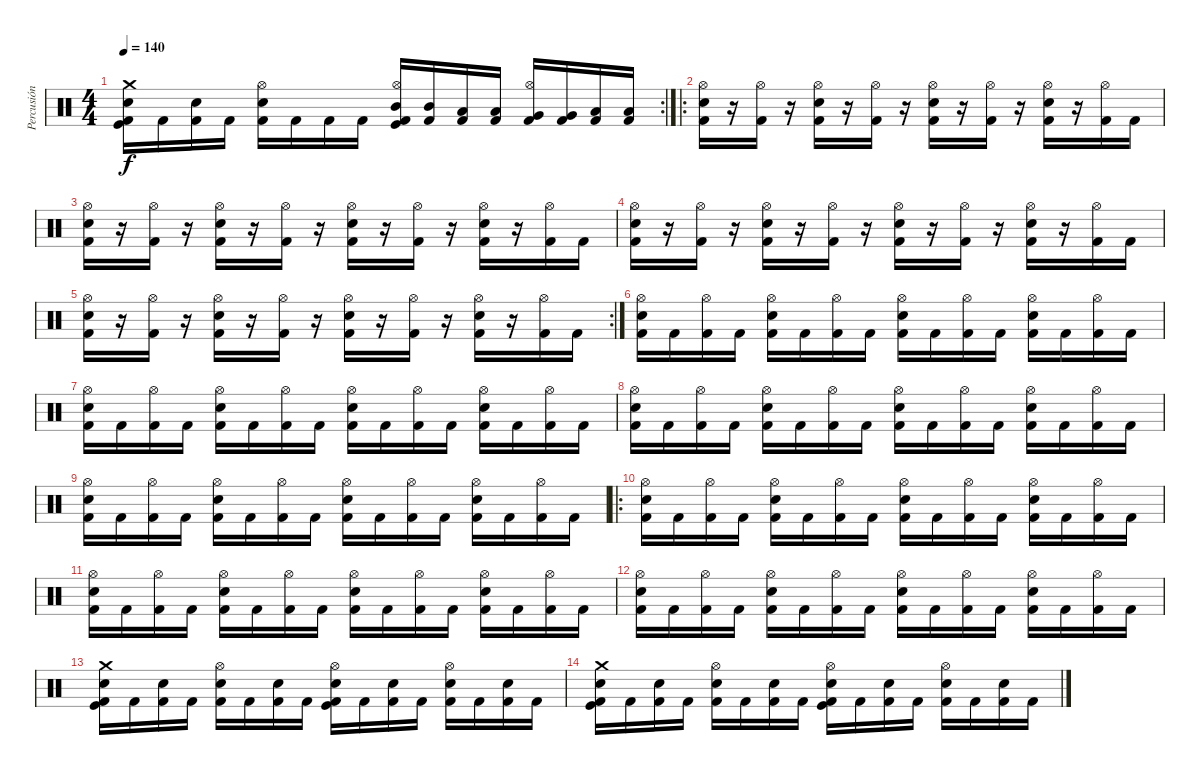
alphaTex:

\track ("Percusión" "Percusión") {instrument percussion}
\staff {score}
\articulation defaults
\rc 2
\ts (4 4)
\tempo 140
\clef neutral
\ks c
("Crash medium (hit)" "Electric Snare (hit)" "Kick (hit)" "Kick (hit) 2").16{dy f} "Kick (hit) 2".16 ("Electric Snare (hit)" "Kick (hit) 2").16 "Kick (hit) 2".16 ("Hi-Hat (open)" "Electric Snare (hit)" "Kick (hit) 2").16 "Kick (hit) 2".16 "Kick (hit) 2".16 "Kick (hit) 2".16 ("Hi-Hat (open)" "Mid Tom (hit)" "Kick (hit)" "Kick (hit) 2").16 ("Mid Tom (hit)" "Kick (hit) 2").16 ("Low Tom (hit)" "Kick (hit) 2").16 ("Low Tom (hit)" "Kick (hit) 2").16 ("Hi-Hat (open)" "Very Low Tom (hit)" "Kick (hit) 2").16 ("Very Low Tom (hit)" "Kick (hit) 2").16 ("Low Floor Tom (hit)" "Kick (hit) 2").16 ("Low Floor Tom (hit)" "Kick (hit) 2").16 |
\ro
("Hi-Hat (open)" "Electric Snare (hit)" "Kick (hit) 2").16 r.16 ("Hi-Hat (open)" "Kick (hit) 2").16 r.16 ("Hi-Hat (open)" "Electric Snare (hit)" "Kick (hit) 2").16 r.16 ("Hi-Hat (open)" "Kick (hit) 2").16 r.16 ("Hi-Hat (open)" "Electric Snare (hit)" "Kick (hit) 2").16 r.16 ("Hi-Hat (open)" "Kick (hit) 2").16 r.16 ("Hi-Hat (open)" "Electric Snare (hit)" "Kick (hit) 2").16 r.16 ("Hi-Hat (open)" "Kick (hit) 2").16 "Kick (hit) 2".16 |
("Hi-Hat (open)" "Electric Snare (hit)" "Kick (hit) 2").16 r.16 ("Hi-Hat (open)" "Kick (hit) 2").16 r.16 ("Hi-Hat (open)" "Electric Snare (hit)" "Kick (hit) 2").16 r.16 ("Hi-Hat (open)" "Kick (hit) 2").16 r.16 ("Hi-Hat (open)" "Electric Snare (hit)" "Kick (hit) 2").16 r.16 ("Hi-Hat (open)" "Kick (hit) 2").16 r.16 ("Hi-Hat (open)" "Electric Snare (hit)" "Kick (hit) 2").16 r.16 ("Hi-Hat (open)" "Kick (hit) 2").16 "Kick (hit) 2".16 |
("Hi-Hat (open)" "Electric Snare (hit)" "Kick (hit) 2").16 r.16 ("Hi-Hat (open)" "Kick (hit) 2").16 r.16 ("Hi-Hat (open)" "Electric Snare (hit)" "Kick (hit) 2").16 r.16 ("Hi-Hat (open)" "Kick (hit) 2").16 r.16 ("Hi-Hat (open)" "Electric Snare (hit)" "Kick (hit) 2").16 r.16 ("Hi-Hat (open)" "Kick (hit) 2").16 r.16 ("Hi-Hat (open)" "Electric Snare (hit)" "Kick (hit) 2").16 r.16 ("Hi-Hat (open)" "Kick (hit) 2").16 "Kick (hit) 2".16 |
\rc 2
("Hi-Hat (open)" "Electric Snare (hit)" "Kick (hit) 2").16 r.16 ("Hi-Hat (open)" "Kick (hit) 2").16 r.16 ("Hi-Hat (open)" "Electric Snare (hit)" "Kick (hit) 2").16 r.16 ("Hi-Hat (open)" "Kick (hit) 2").16 r.16 ("Hi-Hat (open)" "Electric Snare (hit)" "Kick (hit) 2").16 r.16 ("Hi-Hat (open)" "Kick (hit) 2").16 r.16 ("Hi-Hat (open)" "Electric Snare (hit)" "Kick (hit) 2").16 r.16 ("Hi-Hat (open)" "Kick (hit) 2").16 "Kick (hit) 2".16 |
("Hi-Hat (open)" "Electric Snare (hit)" "Kick (hit) 2").16 "Kick (hit) 2".16 ("Hi-Hat (open)" "Kick (hit) 2").16 "Kick (hit) 2".16 ("Hi-Hat (open)" "Electric Snare (hit)" "Kick (hit) 2").16 "Kick (hit) 2".16 ("Hi-Hat (open)" "Kick (hit) 2").16 "Kick (hit) 2".16 ("Hi-Hat (open)" "Electric Snare (hit)" "Kick (hit) 2").16 "Kick (hit) 2".16 ("Hi-Hat (open)" "Kick (hit) 2").16 "Kick (hit) 2".16 ("Hi-Hat (open)" "Electric Snare (hit)" "Kick (hit) 2").16 "Kick (hit) 2".16 ("Hi-Hat (open)" "Kick (hit) 2").16 "Kick (hit) 2".16 |
("Hi-Hat (open)" "Electric Snare (hit)" "Kick (hit) 2").16 "Kick (hit) 2".16 ("Hi-Hat (open)" "Kick (hit) 2").16 "Kick (hit) 2".16 ("Hi-Hat (open)" "Electric Snare (hit)" "Kick (hit) 2").16 "Kick (hit) 2".16 ("Hi-Hat (open)" "Kick (hit) 2").16 "Kick (hit) 2".16 ("Hi-Hat (open)" "Electric Snare (hit)" "Kick (hit) 2").16 "Kick (hit) 2".16 ("Hi-Hat (open)" "Kick (hit) 2").16 "Kick (hit) 2".16 ("Hi-Hat (open)" "Electric Snare (hit)" "Kick (hit) 2").16 "Kick (hit) 2".16 ("Hi-Hat (open)" "Kick (hit) 2").16 "Kick (hit) 2".16 |
("Hi-Hat (open)" "Electric Snare (hit)" "Kick (hit) 2").16 "Kick (hit) 2".16 ("Hi-Hat (open)" "Kick (hit) 2").16 "Kick (hit) 2".16 ("Hi-Hat (open)" "Electric Snare (hit)" "Kick (hit) 2").16 "Kick (hit) 2".16 ("Hi-Hat (open)" "Kick (hit) 2").16 "Kick (hit) 2".16 ("Hi-Hat (open)" "Electric Snare (hit)" "Kick (hit) 2").16 "Kick (hit) 2".16 ("Hi-Hat (open)" "Kick (hit) 2").16 "Kick (hit) 2".16 ("Hi-Hat (open)" "Electric Snare (hit)" "Kick (hit) 2").16 "Kick (hit) 2".16 ("Hi-Hat (open)" "Kick (hit) 2").16 "Kick (hit) 2".16 |
("Hi-Hat (open)" "Electric Snare (hit)" "Kick (hit) 2").16 "Kick (hit) 2".16 ("Hi-Hat (open)" "Kick (hit) 2").16 "Kick (hit) 2".16 ("Hi-Hat (open)" "Electric Snare (hit)" "Kick (hit) 2").16 "Kick (hit) 2".16 ("Hi-Hat (open)" "Kick (hit) 2").16 "Kick (hit) 2".16 ("Hi-Hat (open)" "Electric Snare (hit)" "Kick (hit) 2").16 "Kick (hit) 2".16 ("Hi-Hat (open)" "Kick (hit) 2").16 "Kick (hit) 2".16 ("Hi-Hat (open)" "Electric Snare (hit)" "Kick (hit) 2").16 "Kick (hit) 2".16 ("Hi-Hat (open)" "Kick (hit) 2").16 "Kick (hit) 2".16 |
\ro
("Hi-Hat (open)" "Electric Snare (hit)" "Kick (hit) 2").16 "Kick (hit) 2".16 ("Hi-Hat (open)" "Kick (hit) 2").16 "Kick (hit) 2".16 ("Hi-Hat (open)" "Electric Snare (hit)" "Kick (hit) 2").16 "Kick (hit) 2".16 ("Hi-Hat (open)" "Kick (hit) 2").16 "Kick (hit) 2".16 ("Hi-Hat (open)" "Electric Snare (hit)" "Kick (hit) 2").16 "Kick (hit) 2".16 ("Hi-Hat (open)" "Kick (hit) 2").16 "Kick (hit) 2".16 ("Hi-Hat (open)" "Electric Snare (hit)" "Kick (hit) 2").16 "Kick (hit) 2".16 ("Hi-Hat (open)" "Kick (hit) 2").16 "Kick (hit) 2".16 |
("Hi-Hat (open)" "Electric Snare (hit)" "Kick (hit) 2").16 "Kick (hit) 2".16 ("Hi-Hat (open)" "Kick (hit) 2").16 "Kick (hit) 2".16 ("Hi-Hat (open)" "Electric Snare (hit)" "Kick (hit) 2").16 "Kick (hit) 2".16 ("Hi-Hat (open)" "Kick (hit) 2").16 "Kick (hit) 2".16 ("Hi-Hat (open)" "Electric Snare (hit)" "Kick (hit) 2").16 "Kick (hit) 2".16 ("Hi-Hat (open)" "Kick (hit) 2").16 "Kick (hit) 2".16 ("Hi-Hat (open)" "Electric Snare (hit)" "Kick (hit) 2").16 "Kick (hit) 2".16 ("Hi-Hat (open)" "Kick (hit) 2").16 "Kick (hit) 2".16 |
("Hi-Hat (open)" "Electric Snare (hit)" "Kick (hit) 2").16 "Kick (hit) 2".16 ("Hi-Hat (open)" "Kick (hit) 2").16 "Kick (hit) 2".16 ("Hi-Hat (open)" "Electric Snare (hit)" "Kick (hit) 2").16 "Kick (hit) 2".16 ("Hi-Hat (open)" "Kick (hit) 2").16 "Kick (hit) 2".16 ("Hi-Hat (open)" "Electric Snare (hit)" "Kick (hit) 2").16 "Kick (hit) 2".16 ("Hi-Hat (open)" "Kick (hit) 2").16 "Kick (hit) 2".16 ("Hi-Hat (open)" "Electric Snare (hit)" "Kick (hit) 2").16 "Kick (hit) 2".16 ("Hi-Hat (open)" "Kick (hit) 2").16 "Kick (hit) 2".16 |
("Crash medium (hit)" "Electric Snare (hit)" "Kick (hit)" "Kick (hit) 2").16 "Kick (hit) 2".16 ("Electric Snare (hit)" "Kick (hit) 2").16 "Kick (hit) 2".16 ("Hi-Hat (open)" "Electric Snare (hit)" "Kick (hit) 2").16 "Kick (hit) 2".16 ("Electric Snare (hit)" "Kick (hit) 2").16 "Kick (hit) 2".16 ("Hi-Hat (open)" "Electric Snare (hit)" "Kick (hit)" "Kick (hit) 2").16 "Kick (hit) 2".16 ("Electric Snare (hit)" "Kick (hit) 2").16 "Kick (hit) 2".16 ("Hi-Hat (open)" "Electric Snare (hit)" "Kick (hit) 2").16 "Kick (hit) 2".16 ("Electric Snare (hit)" "Kick (hit) 2").16 "Kick (hit) 2".16 |
("Crash medium (hit)" "Electric Snare (hit)" "Kick (hit)" "Kick (hit) 2").16 "Kick (hit) 2".16 ("Electric Snare (hit)" "Kick (hit) 2").16 "Kick (hit) 2".16 ("Hi-Hat (open)" "Electric Snare (hit)" "Kick (hit) 2").16 "Kick (hit) 2".16 ("Electric Snare (hit)" "Kick (hit) 2").16 "Kick (hit) 2".16 ("Hi-Hat (open)" "Electric Snare (hit)" "Kick (hit)" "Kick (hit) 2").16 "Kick (hit) 2".16 ("Electric Snare (hit)" "Kick (hit) 2").16 "Kick (hit) 2".16 ("Hi-Hat (open)" "Electric Snare (hit)" "Kick (hit) 2").16 "Kick (hit) 2".16 ("Electric Snare (hit)" "Kick (hit) 2").16 "Kick (hit) 2".16
